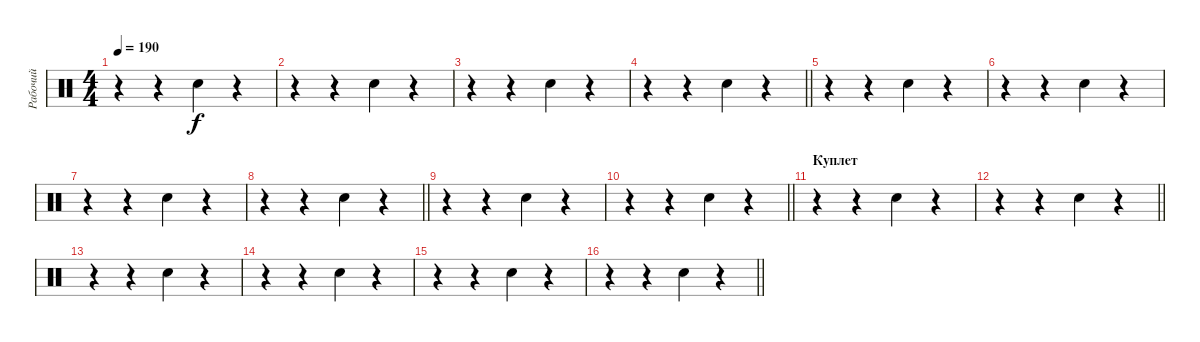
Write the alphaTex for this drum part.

\track ("Рабочий" "Рабочий") {instrument percussion}
\staff {score}
\articulation defaults
\ts (4 4)
\tempo 190
\clef neutral
\ks c
r.4{dy f} r.4 "Snare (hit) 2".4 r.4 |
r.4 r.4 "Snare (hit) 2".4 r.4 |
r.4 r.4 "Snare (hit) 2".4 r.4 |
\barLineRight lightlight
r.4 r.4 "Snare (hit) 2".4 r.4 |
r.4 r.4 "Snare (hit) 2".4 r.4 |
r.4 r.4 "Snare (hit) 2".4 r.4 |
r.4 r.4 "Snare (hit) 2".4 r.4 |
\barLineRight lightlight
r.4 r.4 "Snare (hit) 2".4 r.4 |
r.4 r.4 "Snare (hit) 2".4 r.4 |
\barLineRight lightlight
r.4 r.4 "Snare (hit) 2".4 r.4 |
\section ("" "Куплет")
r.4 r.4 "Snare (hit) 2".4 r.4 |
\barLineRight lightlight
r.4 r.4 "Snare (hit) 2".4 r.4 |
r.4 r.4 "Snare (hit) 2".4 r.4 |
r.4 r.4 "Snare (hit) 2".4 r.4 |
r.4 r.4 "Snare (hit) 2".4 r.4 |
\barLineRight lightlight
r.4 r.4 "Snare (hit) 2".4 r.4
